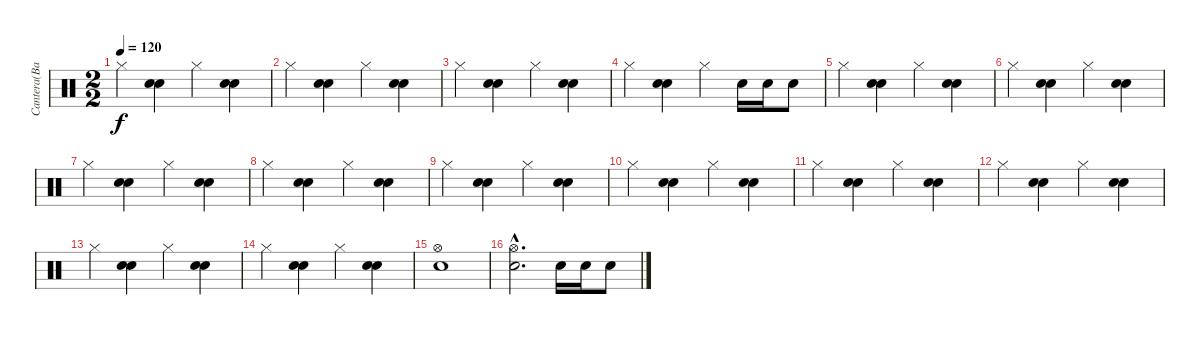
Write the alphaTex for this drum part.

\track ("Cantera(Bateria)" "Cantera(Ba") {instrument percussion}
\staff {score}
\articulation defaults
\ts (2 2)
\tempo 120
\clef neutral
\ks c "Hi-Hat (closed)".4{dy f}
("Electric Snare (hit)" "Electric Snare (hit)").4 "Hi-Hat (closed)".4 ("Electric Snare (hit)" "Electric Snare (hit)").4 |
"Hi-Hat (closed)".4 ("Electric Snare (hit)" "Electric Snare (hit)").4 "Hi-Hat (closed)".4 ("Electric Snare (hit)" "Electric Snare (hit)").4 |
"Hi-Hat (closed)".4 ("Electric Snare (hit)" "Electric Snare (hit)").4 "Hi-Hat (closed)".4 ("Electric Snare (hit)" "Electric Snare (hit)").4 |
"Hi-Hat (closed)".4 ("Electric Snare (hit)" "Electric Snare (hit)").4 "Hi-Hat (closed)".4 "Electric Snare (hit)".16 "Electric Snare (hit)".16 "Electric Snare (hit)".8 |
"Hi-Hat (closed)".4 ("Electric Snare (hit)" "Electric Snare (hit)").4 "Hi-Hat (closed)".4 ("Electric Snare (hit)" "Electric Snare (hit)").4 |
"Hi-Hat (closed)".4 ("Electric Snare (hit)" "Electric Snare (hit)").4 "Hi-Hat (closed)".4 ("Electric Snare (hit)" "Electric Snare (hit)").4 |
"Hi-Hat (closed)".4 ("Electric Snare (hit)" "Electric Snare (hit)").4 "Hi-Hat (closed)".4 ("Electric Snare (hit)" "Electric Snare (hit)").4 |
"Hi-Hat (closed)".4 ("Electric Snare (hit)" "Electric Snare (hit)").4 "Hi-Hat (closed)".4 ("Electric Snare (hit)" "Electric Snare (hit)").4 |
"Hi-Hat (closed)".4 ("Electric Snare (hit)" "Electric Snare (hit)").4 "Hi-Hat (closed)".4 ("Electric Snare (hit)" "Electric Snare (hit)").4 |
"Hi-Hat (closed)".4 ("Electric Snare (hit)" "Electric Snare (hit)").4 "Hi-Hat (closed)".4 ("Electric Snare (hit)" "Electric Snare (hit)").4 |
"Hi-Hat (closed)".4 ("Electric Snare (hit)" "Electric Snare (hit)").4 "Hi-Hat (closed)".4 ("Electric Snare (hit)" "Electric Snare (hit)").4 |
"Hi-Hat (closed)".4 ("Electric Snare (hit)" "Electric Snare (hit)").4 "Hi-Hat (closed)".4 ("Electric Snare (hit)" "Electric Snare (hit)").4 |
"Hi-Hat (closed)".4 ("Electric Snare (hit)" "Electric Snare (hit)").4 "Hi-Hat (closed)".4 ("Electric Snare (hit)" "Electric Snare (hit)").4 |
"Hi-Hat (closed)".4 ("Electric Snare (hit)" "Electric Snare (hit)").4 "Hi-Hat (closed)".4 ("Electric Snare (hit)" "Electric Snare (hit)").4 |
("Electric Snare (hit)" "Hi-Hat (open)").1 |
("Electric Snare (hit)"{hac} "Hi-Hat (open)"{hac}).2{d} "Electric Snare (hit)".16 "Electric Snare (hit)".16 "Electric Snare (hit)".8
